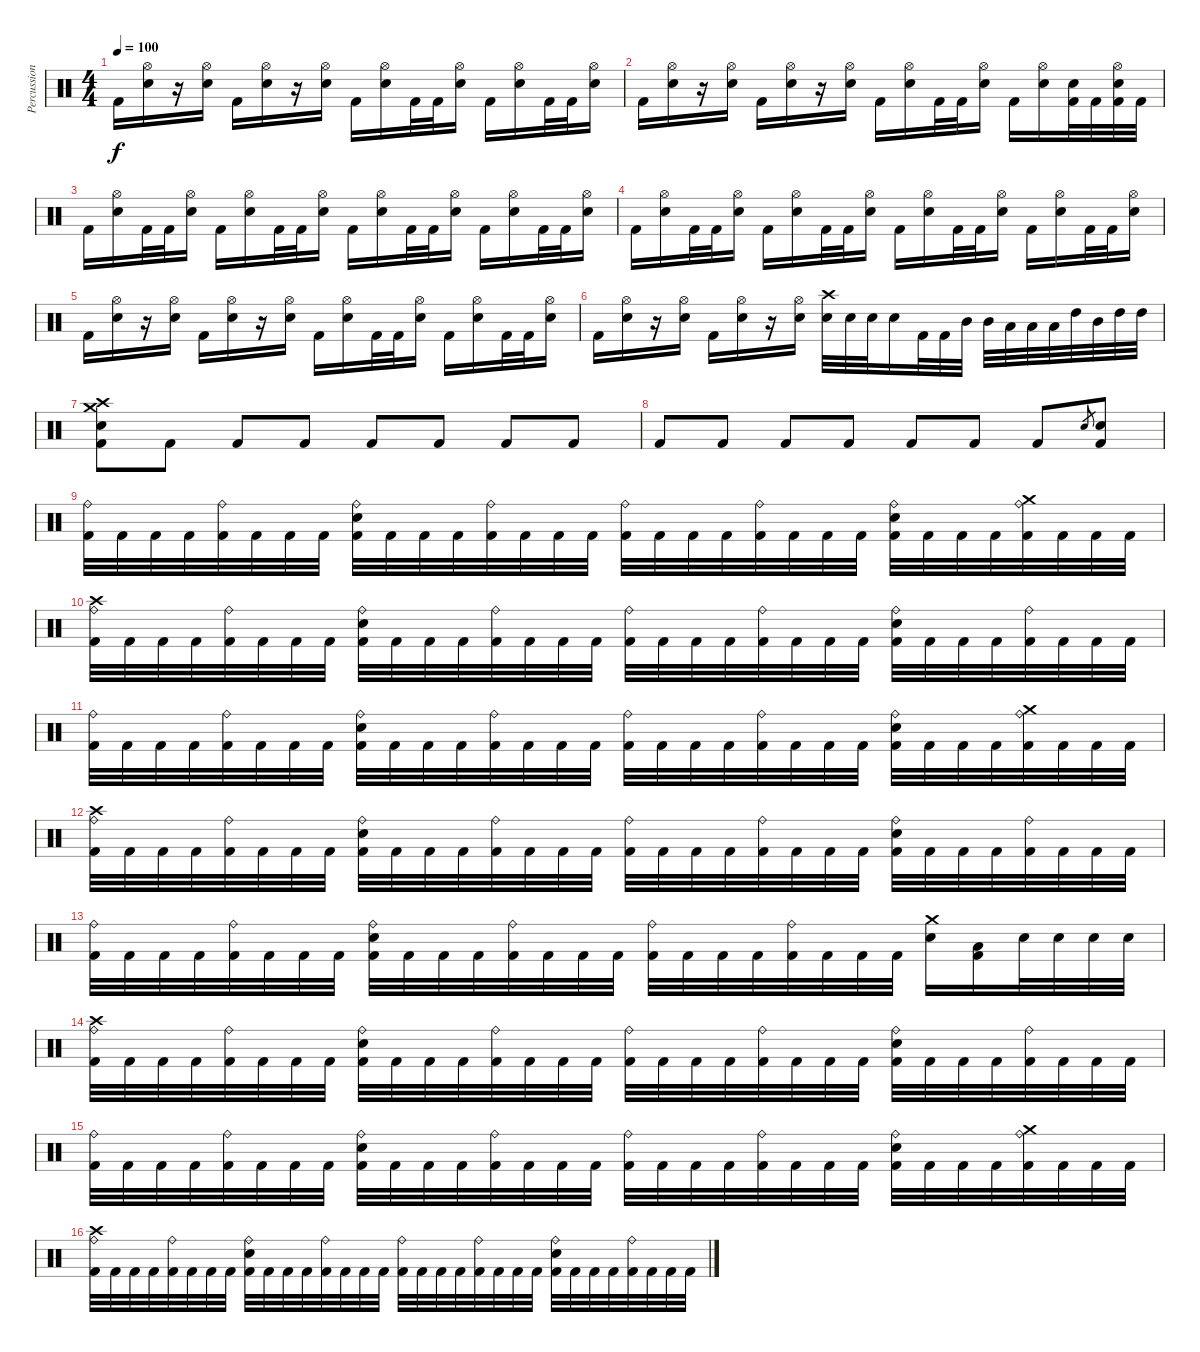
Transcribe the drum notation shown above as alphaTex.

\track ("Percussion" "Percussion") {instrument percussion}
\staff {score}
\articulation defaults
\ts (4 4)
\tempo 100
\clef neutral
\ks c "Kick (hit) 2".16{dy f}
("Hi-Hat (open)" "Electric Snare (hit)").16 r.16 ("Hi-Hat (open)" "Electric Snare (hit)").16 "Kick (hit) 2".16 ("Hi-Hat (open)" "Electric Snare (hit)").16 r.16 ("Hi-Hat (open)" "Electric Snare (hit)").16 "Kick (hit) 2".16 ("Hi-Hat (open)" "Electric Snare (hit)").16 "Kick (hit) 2".32 "Kick (hit) 2".32 ("Hi-Hat (open)" "Electric Snare (hit)").16 "Kick (hit) 2".16 ("Hi-Hat (open)" "Electric Snare (hit)").16 "Kick (hit) 2".32 "Kick (hit) 2".32 ("Hi-Hat (open)" "Electric Snare (hit)").16 |
"Kick (hit) 2".16 ("Hi-Hat (open)" "Electric Snare (hit)").16 r.16 ("Hi-Hat (open)" "Electric Snare (hit)").16 "Kick (hit) 2".16 ("Hi-Hat (open)" "Electric Snare (hit)").16 r.16 ("Hi-Hat (open)" "Electric Snare (hit)").16 "Kick (hit) 2".16 ("Hi-Hat (open)" "Electric Snare (hit)").16 "Kick (hit) 2".32 "Kick (hit) 2".32 ("Hi-Hat (open)" "Electric Snare (hit)").16 "Kick (hit) 2".16 ("Hi-Hat (open)" "Electric Snare (hit)").16 ("Electric Snare (hit)" "Kick (hit) 2").32 "Kick (hit) 2".32 ("Hi-Hat (open)" "Electric Snare (hit)" "Kick (hit) 2").32 "Kick (hit) 2".32 |
"Kick (hit) 2".16 ("Hi-Hat (open)" "Electric Snare (hit)").16 "Kick (hit) 2".32 "Kick (hit) 2".32 ("Hi-Hat (open)" "Electric Snare (hit)").16 "Kick (hit) 2".16 ("Hi-Hat (open)" "Electric Snare (hit)").16 "Kick (hit) 2".32 "Kick (hit) 2".32 ("Hi-Hat (open)" "Electric Snare (hit)").16 "Kick (hit) 2".16 ("Hi-Hat (open)" "Electric Snare (hit)").16 "Kick (hit) 2".32 "Kick (hit) 2".32 ("Hi-Hat (open)" "Electric Snare (hit)").16 "Kick (hit) 2".16 ("Hi-Hat (open)" "Electric Snare (hit)").16 "Kick (hit) 2".32 "Kick (hit) 2".32 ("Hi-Hat (open)" "Electric Snare (hit)").16 |
"Kick (hit) 2".16 ("Hi-Hat (open)" "Electric Snare (hit)").16 "Kick (hit) 2".32 "Kick (hit) 2".32 ("Hi-Hat (open)" "Electric Snare (hit)").16 "Kick (hit) 2".16 ("Hi-Hat (open)" "Electric Snare (hit)").16 "Kick (hit) 2".32 "Kick (hit) 2".32 ("Hi-Hat (open)" "Electric Snare (hit)").16 "Kick (hit) 2".16 ("Hi-Hat (open)" "Electric Snare (hit)").16 "Kick (hit) 2".32 "Kick (hit) 2".32 ("Hi-Hat (open)" "Electric Snare (hit)").16 "Kick (hit) 2".16 ("Hi-Hat (open)" "Electric Snare (hit)").16 "Kick (hit) 2".32 "Kick (hit) 2".32 ("Hi-Hat (open)" "Electric Snare (hit)").16 |
"Kick (hit) 2".16 ("Hi-Hat (open)" "Electric Snare (hit)").16 r.16 ("Hi-Hat (open)" "Electric Snare (hit)").16 "Kick (hit) 2".16 ("Hi-Hat (open)" "Electric Snare (hit)").16 r.16 ("Hi-Hat (open)" "Electric Snare (hit)").16 "Kick (hit) 2".16 ("Hi-Hat (open)" "Electric Snare (hit)").16 "Kick (hit) 2".32 "Kick (hit) 2".32 ("Hi-Hat (open)" "Electric Snare (hit)").16 "Kick (hit) 2".16 ("Hi-Hat (open)" "Electric Snare (hit)").16 "Kick (hit) 2".32 "Kick (hit) 2".32 ("Hi-Hat (open)" "Electric Snare (hit)").16 |
"Kick (hit) 2".16 ("Hi-Hat (open)" "Electric Snare (hit)").16 r.16 ("Hi-Hat (open)" "Electric Snare (hit)").16 "Kick (hit) 2".16 ("Hi-Hat (open)" "Electric Snare (hit)").16 r.16 ("Hi-Hat (open)" "Electric Snare (hit)").16 ("Crash high (hit)" "Electric Snare (hit)").32 "Electric Snare (hit)".32 "Electric Snare (hit)".32 "Electric Snare (hit)".16 "Kick (hit) 2".32 "Kick (hit) 2".32 "Mid Tom (hit)".32 "Mid Tom (hit)".32 "Low Tom (hit)".32 "Low Tom (hit)".32 "Low Tom (hit)".32 "High Tom (hit)".32 "Mid Tom (hit)".32 "High Tom (hit)".32 "High Tom (hit)".32 |
("Crash medium (hit)" "Crash high (hit)" "Electric Snare (hit)" "Kick (hit) 2").8 "Kick (hit) 2".8 "Kick (hit) 2".8 "Kick (hit) 2".8 "Kick (hit) 2".8 "Kick (hit) 2".8 "Kick (hit) 2".8 "Kick (hit) 2".8 |
"Kick (hit) 2".8 "Kick (hit) 2".8 "Kick (hit) 2".8 "Kick (hit) 2".8 "Kick (hit) 2".8 "Kick (hit) 2".8 "Kick (hit) 2".8 "Electric Snare (hit)".8{gr} ("Electric Snare (hit)" "Kick (hit) 2").8 |
("Ride (bell)" "Kick (hit) 2").32 "Kick (hit) 2".32 "Kick (hit) 2".32 "Kick (hit) 2".32 ("Ride (bell)" "Kick (hit) 2").32 "Kick (hit) 2".32 "Kick (hit) 2".32 "Kick (hit) 2".32 ("Ride (bell)" "Electric Snare (hit)" "Kick (hit) 2").32 "Kick (hit) 2".32 "Kick (hit) 2".32 "Kick (hit) 2".32 ("Ride (bell)" "Kick (hit) 2").32 "Kick (hit) 2".32 "Kick (hit) 2".32 "Kick (hit) 2".32 ("Ride (bell)" "Kick (hit) 2").32 "Kick (hit) 2".32 "Kick (hit) 2".32 "Kick (hit) 2".32 ("Ride (bell)" "Kick (hit) 2").32 "Kick (hit) 2".32 "Kick (hit) 2".32 "Kick (hit) 2".32 ("Ride (bell)" "Electric Snare (hit)" "Kick (hit) 2").32 "Kick (hit) 2".32 "Kick (hit) 2".32 "Kick (hit) 2".32 ("Ride (bell)" "Crash medium (hit)" "Kick (hit) 2").32 "Kick (hit) 2".32 "Kick (hit) 2".32 "Kick (hit) 2".32 |
("Ride (bell)" "Crash high (hit)" "Kick (hit) 2").32 "Kick (hit) 2".32 "Kick (hit) 2".32 "Kick (hit) 2".32 ("Ride (bell)" "Kick (hit) 2").32 "Kick (hit) 2".32 "Kick (hit) 2".32 "Kick (hit) 2".32 ("Ride (bell)" "Electric Snare (hit)" "Kick (hit) 2").32 "Kick (hit) 2".32 "Kick (hit) 2".32 "Kick (hit) 2".32 ("Ride (bell)" "Kick (hit) 2").32 "Kick (hit) 2".32 "Kick (hit) 2".32 "Kick (hit) 2".32 ("Ride (bell)" "Kick (hit) 2").32 "Kick (hit) 2".32 "Kick (hit) 2".32 "Kick (hit) 2".32 ("Ride (bell)" "Kick (hit) 2").32 "Kick (hit) 2".32 "Kick (hit) 2".32 "Kick (hit) 2".32 ("Ride (bell)" "Electric Snare (hit)" "Kick (hit) 2").32 "Kick (hit) 2".32 "Kick (hit) 2".32 "Kick (hit) 2".32 ("Ride (bell)" "Kick (hit) 2").32 "Kick (hit) 2".32 "Kick (hit) 2".32 "Kick (hit) 2".32 |
("Ride (bell)" "Kick (hit) 2").32 "Kick (hit) 2".32 "Kick (hit) 2".32 "Kick (hit) 2".32 ("Ride (bell)" "Kick (hit) 2").32 "Kick (hit) 2".32 "Kick (hit) 2".32 "Kick (hit) 2".32 ("Ride (bell)" "Electric Snare (hit)" "Kick (hit) 2").32 "Kick (hit) 2".32 "Kick (hit) 2".32 "Kick (hit) 2".32 ("Ride (bell)" "Kick (hit) 2").32 "Kick (hit) 2".32 "Kick (hit) 2".32 "Kick (hit) 2".32 ("Ride (bell)" "Kick (hit) 2").32 "Kick (hit) 2".32 "Kick (hit) 2".32 "Kick (hit) 2".32 ("Ride (bell)" "Kick (hit) 2").32 "Kick (hit) 2".32 "Kick (hit) 2".32 "Kick (hit) 2".32 ("Ride (bell)" "Electric Snare (hit)" "Kick (hit) 2").32 "Kick (hit) 2".32 "Kick (hit) 2".32 "Kick (hit) 2".32 ("Ride (bell)" "Crash medium (hit)" "Kick (hit) 2").32 "Kick (hit) 2".32 "Kick (hit) 2".32 "Kick (hit) 2".32 |
("Ride (bell)" "Crash high (hit)" "Kick (hit) 2").32 "Kick (hit) 2".32 "Kick (hit) 2".32 "Kick (hit) 2".32 ("Ride (bell)" "Kick (hit) 2").32 "Kick (hit) 2".32 "Kick (hit) 2".32 "Kick (hit) 2".32 ("Ride (bell)" "Electric Snare (hit)" "Kick (hit) 2").32 "Kick (hit) 2".32 "Kick (hit) 2".32 "Kick (hit) 2".32 ("Ride (bell)" "Kick (hit) 2").32 "Kick (hit) 2".32 "Kick (hit) 2".32 "Kick (hit) 2".32 ("Ride (bell)" "Kick (hit) 2").32 "Kick (hit) 2".32 "Kick (hit) 2".32 "Kick (hit) 2".32 ("Ride (bell)" "Kick (hit) 2").32 "Kick (hit) 2".32 "Kick (hit) 2".32 "Kick (hit) 2".32 ("Ride (bell)" "Electric Snare (hit)" "Kick (hit) 2").32 "Kick (hit) 2".32 "Kick (hit) 2".32 "Kick (hit) 2".32 ("Ride (bell)" "Kick (hit) 2").32 "Kick (hit) 2".32 "Kick (hit) 2".32 "Kick (hit) 2".32 |
("Ride (bell)" "Kick (hit) 2").32 "Kick (hit) 2".32 "Kick (hit) 2".32 "Kick (hit) 2".32 ("Ride (bell)" "Kick (hit) 2").32 "Kick (hit) 2".32 "Kick (hit) 2".32 "Kick (hit) 2".32 ("Ride (bell)" "Electric Snare (hit)" "Kick (hit) 2").32 "Kick (hit) 2".32 "Kick (hit) 2".32 "Kick (hit) 2".32 ("Ride (bell)" "Kick (hit) 2").32 "Kick (hit) 2".32 "Kick (hit) 2".32 "Kick (hit) 2".32 ("Ride (bell)" "Kick (hit) 2").32 "Kick (hit) 2".32 "Kick (hit) 2".32 "Kick (hit) 2".32 ("Ride (bell)" "Kick (hit) 2").32 "Kick (hit) 2".32 "Kick (hit) 2".32 "Kick (hit) 2".32 ("Crash medium (hit)" "Electric Snare (hit)").16 ("Low Tom (hit)" "Kick (hit) 2").16 "Electric Snare (hit)".32 "Electric Snare (hit)".32 "Electric Snare (hit)".32 "Electric Snare (hit)".32 |
("Ride (bell)" "Crash high (hit)" "Kick (hit) 2").32 "Kick (hit) 2".32 "Kick (hit) 2".32 "Kick (hit) 2".32 ("Ride (bell)" "Kick (hit) 2").32 "Kick (hit) 2".32 "Kick (hit) 2".32 "Kick (hit) 2".32 ("Ride (bell)" "Electric Snare (hit)" "Kick (hit) 2").32 "Kick (hit) 2".32 "Kick (hit) 2".32 "Kick (hit) 2".32 ("Ride (bell)" "Kick (hit) 2").32 "Kick (hit) 2".32 "Kick (hit) 2".32 "Kick (hit) 2".32 ("Ride (bell)" "Kick (hit) 2").32 "Kick (hit) 2".32 "Kick (hit) 2".32 "Kick (hit) 2".32 ("Ride (bell)" "Kick (hit) 2").32 "Kick (hit) 2".32 "Kick (hit) 2".32 "Kick (hit) 2".32 ("Ride (bell)" "Electric Snare (hit)" "Kick (hit) 2").32 "Kick (hit) 2".32 "Kick (hit) 2".32 "Kick (hit) 2".32 ("Ride (bell)" "Kick (hit) 2").32 "Kick (hit) 2".32 "Kick (hit) 2".32 "Kick (hit) 2".32 |
("Ride (bell)" "Kick (hit) 2").32 "Kick (hit) 2".32 "Kick (hit) 2".32 "Kick (hit) 2".32 ("Ride (bell)" "Kick (hit) 2").32 "Kick (hit) 2".32 "Kick (hit) 2".32 "Kick (hit) 2".32 ("Ride (bell)" "Electric Snare (hit)" "Kick (hit) 2").32 "Kick (hit) 2".32 "Kick (hit) 2".32 "Kick (hit) 2".32 ("Ride (bell)" "Kick (hit) 2").32 "Kick (hit) 2".32 "Kick (hit) 2".32 "Kick (hit) 2".32 ("Ride (bell)" "Kick (hit) 2").32 "Kick (hit) 2".32 "Kick (hit) 2".32 "Kick (hit) 2".32 ("Ride (bell)" "Kick (hit) 2").32 "Kick (hit) 2".32 "Kick (hit) 2".32 "Kick (hit) 2".32 ("Ride (bell)" "Electric Snare (hit)" "Kick (hit) 2").32 "Kick (hit) 2".32 "Kick (hit) 2".32 "Kick (hit) 2".32 ("Ride (bell)" "Crash medium (hit)" "Kick (hit) 2").32 "Kick (hit) 2".32 "Kick (hit) 2".32 "Kick (hit) 2".32 |
("Ride (bell)" "Crash high (hit)" "Kick (hit) 2").32 "Kick (hit) 2".32 "Kick (hit) 2".32 "Kick (hit) 2".32 ("Ride (bell)" "Kick (hit) 2").32 "Kick (hit) 2".32 "Kick (hit) 2".32 "Kick (hit) 2".32 ("Ride (bell)" "Electric Snare (hit)" "Kick (hit) 2").32 "Kick (hit) 2".32 "Kick (hit) 2".32 "Kick (hit) 2".32 ("Ride (bell)" "Kick (hit) 2").32 "Kick (hit) 2".32 "Kick (hit) 2".32 "Kick (hit) 2".32 ("Ride (bell)" "Kick (hit) 2").32 "Kick (hit) 2".32 "Kick (hit) 2".32 "Kick (hit) 2".32 ("Ride (bell)" "Kick (hit) 2").32 "Kick (hit) 2".32 "Kick (hit) 2".32 "Kick (hit) 2".32 ("Ride (bell)" "Electric Snare (hit)" "Kick (hit) 2").32 "Kick (hit) 2".32 "Kick (hit) 2".32 "Kick (hit) 2".32 ("Ride (bell)" "Kick (hit) 2").32 "Kick (hit) 2".32 "Kick (hit) 2".32 "Kick (hit) 2".32
